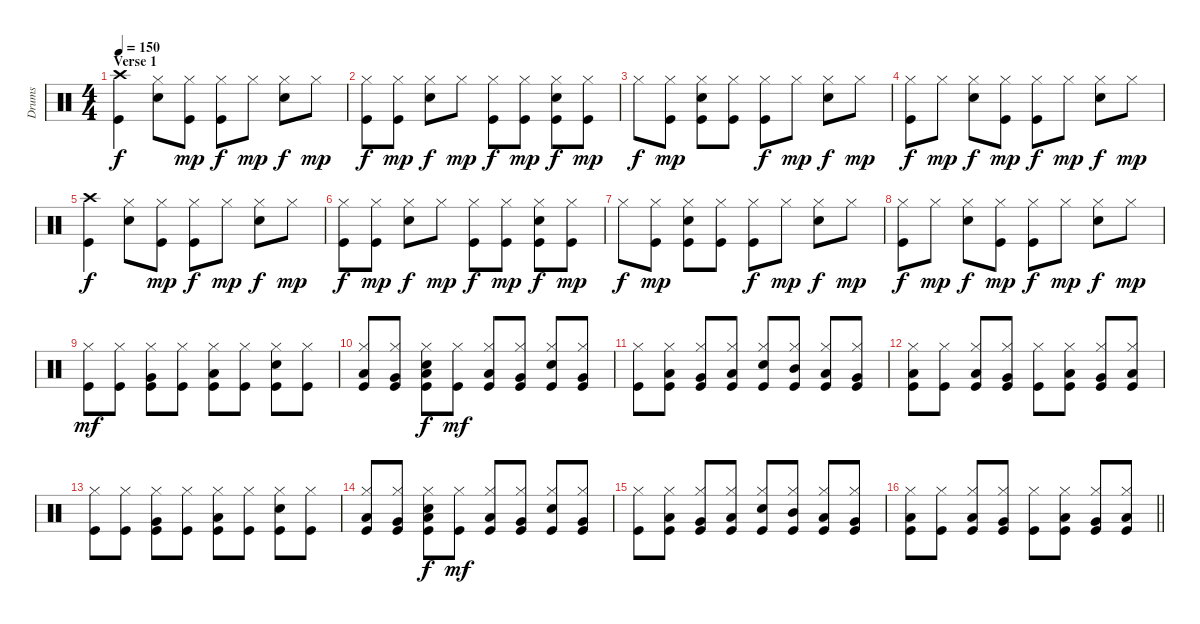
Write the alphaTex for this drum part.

\track ("Drums" "Drums") {instrument percussion}
\staff {score}
\articulation defaults
\ts (4 4)
\section ("" "Verse 1")
\tempo 150
\clef neutral
\ks c
("Crash high (hit)" "Kick (hit)").4{dy f} ("Hi-Hat (closed)" "Snare (hit) 2").8 ("Hi-Hat (closed)" "Kick (hit)").8{dy mp} ("Hi-Hat (closed)" "Kick (hit)").8{dy f} "Hi-Hat (closed)".8{dy mp} ("Hi-Hat (closed)" "Snare (hit) 2").8{dy f} "Hi-Hat (closed)".8{dy mp} |
("Hi-Hat (closed)" "Kick (hit)").8{dy f} ("Hi-Hat (closed)" "Kick (hit)").8{dy mp} ("Hi-Hat (closed)" "Snare (hit) 2").8{dy f} "Hi-Hat (closed)".8{dy mp} ("Hi-Hat (closed)" "Kick (hit)").8{dy f} ("Hi-Hat (closed)" "Kick (hit)").8{dy mp} ("Snare (hit) 2" "Hi-Hat (closed)" "Kick (hit)").8{dy f} ("Hi-Hat (closed)" "Kick (hit)").8{dy mp} |
"Hi-Hat (closed)".8{dy f} ("Hi-Hat (closed)" "Kick (hit)").8{dy mp} ("Snare (hit) 2" "Hi-Hat (closed)" "Kick (hit)").8 ("Hi-Hat (closed)" "Kick (hit)").8 ("Hi-Hat (closed)" "Kick (hit)").8{dy f} "Hi-Hat (closed)".8{dy mp} ("Hi-Hat (closed)" "Snare (hit) 2").8{dy f} "Hi-Hat (closed)".8{dy mp} |
("Hi-Hat (closed)" "Kick (hit)").8{dy f} "Hi-Hat (closed)".8{dy mp} ("Hi-Hat (closed)" "Snare (hit) 2").8{dy f} ("Hi-Hat (closed)" "Kick (hit)").8{dy mp} ("Hi-Hat (closed)" "Kick (hit)").8{dy f} "Hi-Hat (closed)".8{dy mp} ("Hi-Hat (closed)" "Snare (hit) 2").8{dy f} "Hi-Hat (closed)".8{dy mp} |
("Crash high (hit)" "Kick (hit)").4{dy f} ("Hi-Hat (closed)" "Snare (hit) 2").8 ("Hi-Hat (closed)" "Kick (hit)").8{dy mp} ("Hi-Hat (closed)" "Kick (hit)").8{dy f} "Hi-Hat (closed)".8{dy mp} ("Hi-Hat (closed)" "Snare (hit) 2").8{dy f} "Hi-Hat (closed)".8{dy mp} |
("Hi-Hat (closed)" "Kick (hit)").8{dy f} ("Hi-Hat (closed)" "Kick (hit)").8{dy mp} ("Hi-Hat (closed)" "Snare (hit) 2").8{dy f} "Hi-Hat (closed)".8{dy mp} ("Hi-Hat (closed)" "Kick (hit)").8{dy f} ("Hi-Hat (closed)" "Kick (hit)").8{dy mp} ("Snare (hit) 2" "Hi-Hat (closed)" "Kick (hit)").8{dy f} ("Hi-Hat (closed)" "Kick (hit)").8{dy mp} |
"Hi-Hat (closed)".8{dy f} ("Hi-Hat (closed)" "Kick (hit)").8{dy mp} ("Snare (hit) 2" "Hi-Hat (closed)" "Kick (hit)").8 ("Hi-Hat (closed)" "Kick (hit)").8 ("Hi-Hat (closed)" "Kick (hit)").8{dy f} "Hi-Hat (closed)".8{dy mp} ("Hi-Hat (closed)" "Snare (hit) 2").8{dy f} "Hi-Hat (closed)".8{dy mp} |
("Hi-Hat (closed)" "Kick (hit)").8{dy f} "Hi-Hat (closed)".8{dy mp} ("Hi-Hat (closed)" "Snare (hit) 2").8{dy f} ("Hi-Hat (closed)" "Kick (hit)").8{dy mp} ("Hi-Hat (closed)" "Kick (hit)").8{dy f} "Hi-Hat (closed)".8{dy mp} ("Hi-Hat (closed)" "Snare (hit) 2").8{dy f} "Hi-Hat (closed)".8{dy mp} |
("Hi-Hat (closed)" "Kick (hit)").8{dy mf} ("Hi-Hat (closed)" "Kick (hit)").8 ("Hi-Hat (closed)" "Very Low Tom (hit)" "Kick (hit)").8 ("Hi-Hat (closed)" "Kick (hit)").8 ("Hi-Hat (closed)" "Low Floor Tom (hit)" "Kick (hit)").8 ("Hi-Hat (closed)" "Kick (hit)").8 ("Hi-Hat (closed)" "Snare (hit) 2" "Kick (hit)").8 ("Hi-Hat (closed)" "Kick (hit)").8 |
("Hi-Hat (closed)" "Low Tom (hit)" "Kick (hit)").8 ("Hi-Hat (closed)" "Very Low Tom (hit)" "Kick (hit)").8 ("Hi-Hat (closed)" "Snare (hit) 2" "Low Floor Tom (hit)" "Kick (hit)").8{dy f} ("Hi-Hat (closed)" "Kick (hit)").8{dy mf} ("Hi-Hat (closed)" "Low Tom (hit)" "Kick (hit)").8 ("Hi-Hat (closed)" "Very Low Tom (hit)" "Kick (hit)").8 ("Hi-Hat (closed)" "Snare (hit) 2" "Kick (hit)").8 ("Hi-Hat (closed)" "Very Low Tom (hit)" "Kick (hit)").8 |
("Hi-Hat (closed)" "Kick (hit)").8 ("Hi-Hat (closed)" "Low Tom (hit)" "Kick (hit)").8 ("Hi-Hat (closed)" "Very Low Tom (hit)" "Kick (hit)").8 ("Hi-Hat (closed)" "Low Floor Tom (hit)" "Kick (hit)").8 ("Hi-Hat (closed)" "Snare (hit) 2" "Kick (hit)").8 ("Hi-Hat (closed)" "Mid Tom (hit)" "Kick (hit)").8 ("Hi-Hat (closed)" "Low Tom (hit)" "Kick (hit)").8 ("Hi-Hat (closed)" "Very Low Tom (hit)" "Kick (hit)").8 |
("Hi-Hat (closed)" "Low Tom (hit)" "Kick (hit)").8 ("Hi-Hat (closed)" "Kick (hit)").8 ("Hi-Hat (closed)" "Low Tom (hit)" "Kick (hit)").8 ("Hi-Hat (closed)" "Very Low Tom (hit)" "Kick (hit)").8 ("Hi-Hat (closed)" "Kick (hit)").8 ("Hi-Hat (closed)" "Low Tom (hit)" "Kick (hit)").8 ("Hi-Hat (closed)" "Very Low Tom (hit)" "Kick (hit)").8 ("Hi-Hat (closed)" "Low Floor Tom (hit)" "Kick (hit)").8 |
("Hi-Hat (closed)" "Kick (hit)").8 ("Hi-Hat (closed)" "Kick (hit)").8 ("Hi-Hat (closed)" "Very Low Tom (hit)" "Kick (hit)").8 ("Hi-Hat (closed)" "Kick (hit)").8 ("Hi-Hat (closed)" "Low Floor Tom (hit)" "Kick (hit)").8 ("Hi-Hat (closed)" "Kick (hit)").8 ("Hi-Hat (closed)" "Snare (hit) 2" "Kick (hit)").8 ("Hi-Hat (closed)" "Kick (hit)").8 |
("Hi-Hat (closed)" "Low Tom (hit)" "Kick (hit)").8 ("Hi-Hat (closed)" "Very Low Tom (hit)" "Kick (hit)").8 ("Hi-Hat (closed)" "Snare (hit) 2" "Low Floor Tom (hit)" "Kick (hit)").8{dy f} ("Hi-Hat (closed)" "Kick (hit)").8{dy mf} ("Hi-Hat (closed)" "Low Tom (hit)" "Kick (hit)").8 ("Hi-Hat (closed)" "Very Low Tom (hit)" "Kick (hit)").8 ("Hi-Hat (closed)" "Snare (hit) 2" "Kick (hit)").8 ("Hi-Hat (closed)" "Very Low Tom (hit)" "Kick (hit)").8 |
("Hi-Hat (closed)" "Kick (hit)").8 ("Hi-Hat (closed)" "Low Tom (hit)" "Kick (hit)").8 ("Hi-Hat (closed)" "Very Low Tom (hit)" "Kick (hit)").8 ("Hi-Hat (closed)" "Low Floor Tom (hit)" "Kick (hit)").8 ("Hi-Hat (closed)" "Snare (hit) 2" "Kick (hit)").8 ("Hi-Hat (closed)" "Mid Tom (hit)" "Kick (hit)").8 ("Hi-Hat (closed)" "Low Tom (hit)" "Kick (hit)").8 ("Hi-Hat (closed)" "Very Low Tom (hit)" "Kick (hit)").8 |
\barLineRight lightlight
("Hi-Hat (closed)" "Low Tom (hit)" "Kick (hit)").8 ("Hi-Hat (closed)" "Kick (hit)").8 ("Hi-Hat (closed)" "Low Tom (hit)" "Kick (hit)").8 ("Hi-Hat (closed)" "Very Low Tom (hit)" "Kick (hit)").8 ("Hi-Hat (closed)" "Kick (hit)").8 ("Hi-Hat (closed)" "Low Tom (hit)" "Kick (hit)").8 ("Hi-Hat (closed)" "Very Low Tom (hit)" "Kick (hit)").8 ("Hi-Hat (closed)" "Low Floor Tom (hit)" "Kick (hit)").8
